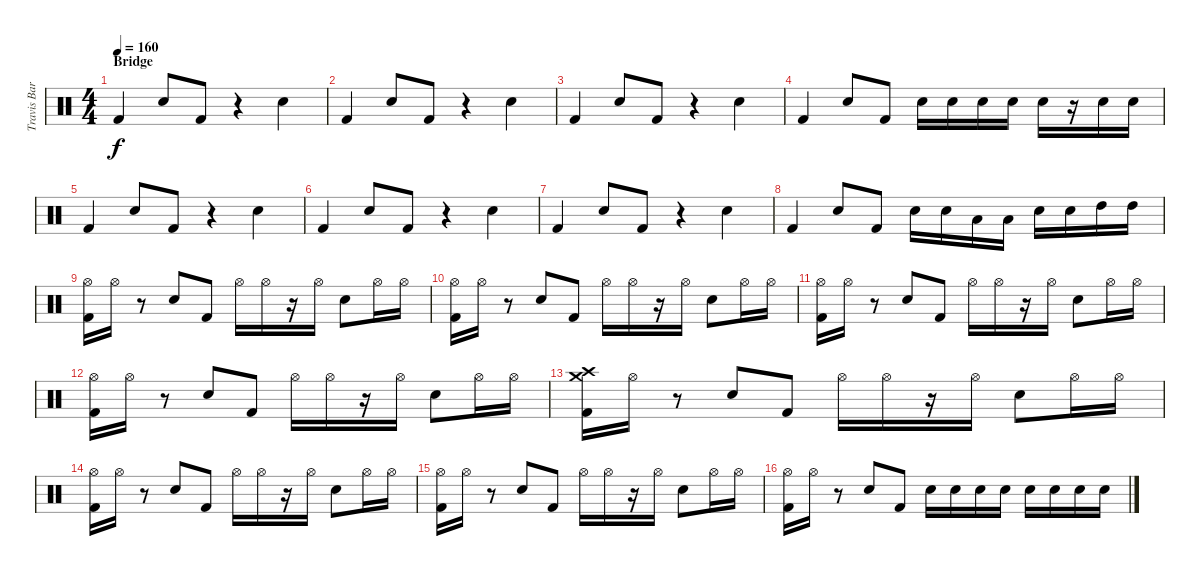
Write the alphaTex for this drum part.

\track ("Travis Barker Drums" "Travis Bar") {instrument percussion}
\staff {score}
\articulation defaults
\ts (4 4)
\section ("" "Bridge")
\tempo 160
\clef neutral
\ks c "Kick (hit) 2".4{dy f} "Electric Snare (hit)".8 "Kick (hit) 2".8
r.4 "Electric Snare (hit)".4 |
"Kick (hit) 2".4 "Electric Snare (hit)".8 "Kick (hit) 2".8 r.4 "Electric Snare (hit)".4 |
"Kick (hit) 2".4 "Electric Snare (hit)".8 "Kick (hit) 2".8 r.4 "Electric Snare (hit)".4 |
"Kick (hit) 2".4 "Electric Snare (hit)".8 "Kick (hit) 2".8 "Electric Snare (hit)".16 "Electric Snare (hit)".16 "Electric Snare (hit)".16 "Electric Snare (hit)".16 "Electric Snare (hit)".16 r.16 "Electric Snare (hit)".16 "Electric Snare (hit)".16 |
"Kick (hit) 2".4 "Electric Snare (hit)".8 "Kick (hit) 2".8 r.4 "Electric Snare (hit)".4 |
"Kick (hit) 2".4 "Electric Snare (hit)".8 "Kick (hit) 2".8 r.4 "Electric Snare (hit)".4 |
"Kick (hit) 2".4 "Electric Snare (hit)".8 "Kick (hit) 2".8 r.4 "Electric Snare (hit)".4 |
"Kick (hit) 2".4 "Electric Snare (hit)".8 "Kick (hit) 2".8 "Electric Snare (hit)".16 "Electric Snare (hit)".16 "Low Tom (hit)".16 "Low Tom (hit)".16 "Electric Snare (hit)".16 "Electric Snare (hit)".16 "High Tom (hit)".16 "High Tom (hit)".16 |
("Hi-Hat (open)" "Kick (hit) 2").16 "Hi-Hat (open)".16 r.8 "Electric Snare (hit)".8 "Kick (hit) 2".8 "Hi-Hat (open)".16 "Hi-Hat (open)".16 r.16 "Hi-Hat (open)".16 "Electric Snare (hit)".8 "Hi-Hat (open)".16 "Hi-Hat (open)".16 |
("Hi-Hat (open)" "Kick (hit) 2").16 "Hi-Hat (open)".16 r.8 "Electric Snare (hit)".8 "Kick (hit) 2".8 "Hi-Hat (open)".16 "Hi-Hat (open)".16 r.16 "Hi-Hat (open)".16 "Electric Snare (hit)".8 "Hi-Hat (open)".16 "Hi-Hat (open)".16 |
("Hi-Hat (open)" "Kick (hit) 2").16 "Hi-Hat (open)".16 r.8 "Electric Snare (hit)".8 "Kick (hit) 2".8 "Hi-Hat (open)".16 "Hi-Hat (open)".16 r.16 "Hi-Hat (open)".16 "Electric Snare (hit)".8 "Hi-Hat (open)".16 "Hi-Hat (open)".16 |
("Hi-Hat (open)" "Kick (hit) 2").16 "Hi-Hat (open)".16 r.8 "Electric Snare (hit)".8 "Kick (hit) 2".8 "Hi-Hat (open)".16 "Hi-Hat (open)".16 r.16 "Hi-Hat (open)".16 "Electric Snare (hit)".8 "Hi-Hat (open)".16 "Hi-Hat (open)".16 |
("Crash medium (hit)" "Crash high (hit)" "Kick (hit) 2").16 "Hi-Hat (open)".16 r.8 "Electric Snare (hit)".8 "Kick (hit) 2".8 "Hi-Hat (open)".16 "Hi-Hat (open)".16 r.16 "Hi-Hat (open)".16 "Electric Snare (hit)".8 "Hi-Hat (open)".16 "Hi-Hat (open)".16 |
("Hi-Hat (open)" "Kick (hit) 2").16 "Hi-Hat (open)".16 r.8 "Electric Snare (hit)".8 "Kick (hit) 2".8 "Hi-Hat (open)".16 "Hi-Hat (open)".16 r.16 "Hi-Hat (open)".16 "Electric Snare (hit)".8 "Hi-Hat (open)".16 "Hi-Hat (open)".16 |
("Hi-Hat (open)" "Kick (hit) 2").16 "Hi-Hat (open)".16 r.8 "Electric Snare (hit)".8 "Kick (hit) 2".8 "Hi-Hat (open)".16 "Hi-Hat (open)".16 r.16 "Hi-Hat (open)".16 "Electric Snare (hit)".8 "Hi-Hat (open)".16 "Hi-Hat (open)".16 |
("Hi-Hat (open)" "Kick (hit) 2").16 "Hi-Hat (open)".16 r.8 "Electric Snare (hit)".8 "Kick (hit) 2".8 "Electric Snare (hit)".16 "Electric Snare (hit)".16 "Electric Snare (hit)".16 "Electric Snare (hit)".16 "Electric Snare (hit)".16 "Electric Snare (hit)".16 "Electric Snare (hit)".16 "Electric Snare (hit)".16
